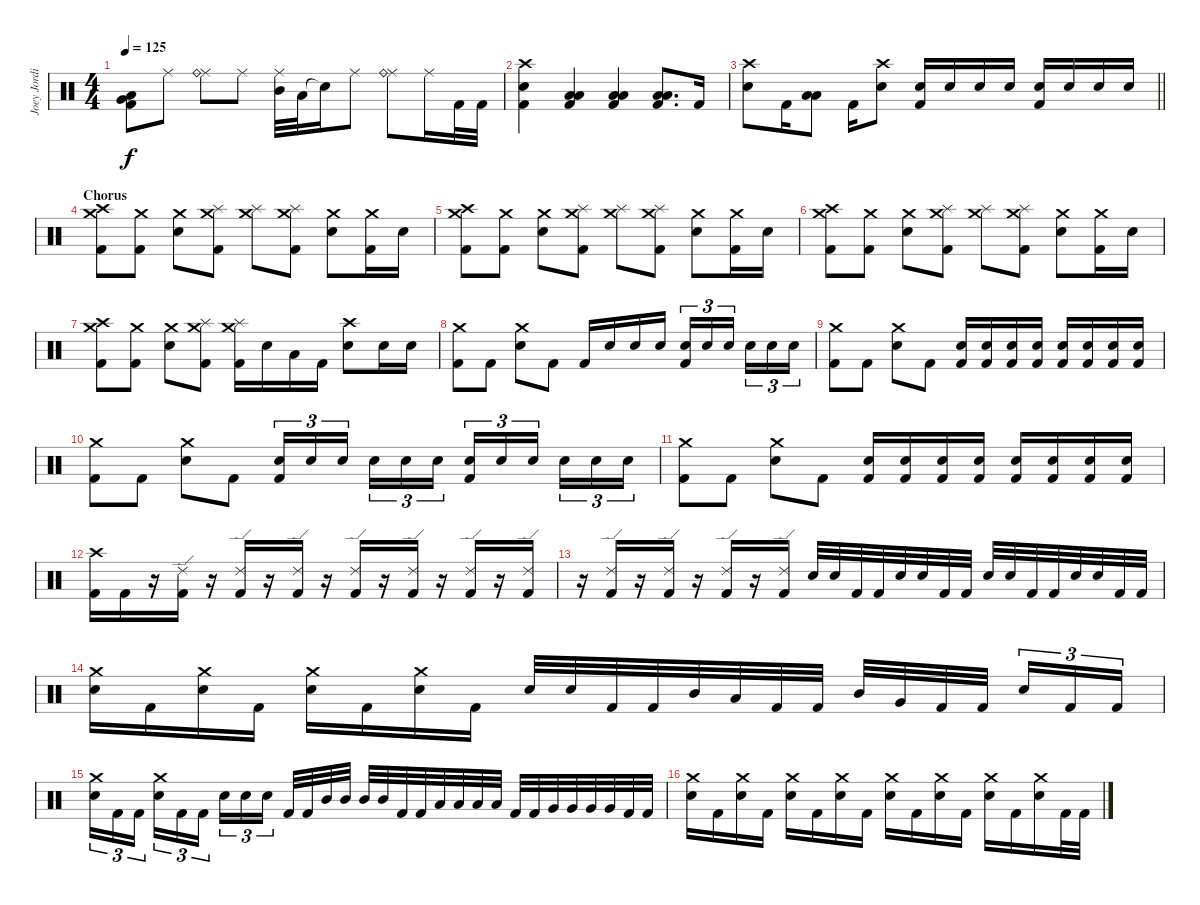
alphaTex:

\track ("Joey Jordison" "Joey Jordi") {instrument percussion}
\staff {score}
\articulation defaults
\ts (4 4)
\tempo 125
\clef neutral
\ks c
("Very Low Tom (hit)" "Low Floor Tom (hit)" "Kick (hit) 2").8{dy f} "Ride (middle)".8 ("Ride (middle)" "Ride (bell)").8 "Ride (middle)".8 ("Ride (middle)" "Mid Tom (hit)").32 "Low Tom (hit)".32 "Snare (hit)"{t}.16 "Ride (middle)".8 ("Ride (middle)" "Ride (bell)").8 "Ride (middle)".16 "Kick (hit) 2".32 "Kick (hit) 2".32 |
("Crash high (hit)" "Snare (hit) 2" "Kick (hit) 2").4 ("Low Tom (hit)" "Low Floor Tom (hit)" "Kick (hit) 2").4 ("Low Tom (hit)" "Low Floor Tom (hit)" "Kick (hit) 2").4 ("Low Tom (hit)" "Low Floor Tom (hit)" "Kick (hit) 2").8{d} "Kick (hit) 2".16 |
\barLineRight lightlight
("Crash high (hit)" "Snare (hit) 2").8 "Kick (hit) 2".16 ("Low Tom (hit)" "Low Floor Tom (hit)").8 "Kick (hit) 2".16 ("Crash high (hit)" "Snare (hit) 2").8 ("Snare (hit) 2" "Kick (hit) 2").16 "Snare (hit) 2".16 "Snare (hit) 2".16 "Snare (hit) 2".16 ("Snare (hit) 2" "Kick (hit) 2").16 "Snare (hit) 2".16 "Snare (hit) 2".16 "Snare (hit) 2".16 |
\section ("" "Chorus")
("Crash medium (hit)" "Crash high (hit)" "Kick (hit) 2").8 ("Crash medium (hit)" "Kick (hit) 2").8 ("Crash medium (hit)" "Snare (hit) 2").8 ("Crash medium (hit)" "Splash (hit)" "Kick (hit) 2").8 ("Crash medium (hit)" "Splash (hit)").8 ("Crash medium (hit)" "Splash (hit)" "Kick (hit) 2").8 ("Crash medium (hit)" "Snare (hit) 2").8 ("Crash medium (hit)" "Kick (hit) 2").16 "Snare (hit) 2".16 |
("Crash medium (hit)" "Crash high (hit)" "Kick (hit) 2").8 ("Crash medium (hit)" "Kick (hit) 2").8 ("Crash medium (hit)" "Snare (hit) 2").8 ("Crash medium (hit)" "Splash (hit)" "Kick (hit) 2").8 ("Crash medium (hit)" "Splash (hit)").8 ("Crash medium (hit)" "Splash (hit)" "Kick (hit) 2").8 ("Crash medium (hit)" "Snare (hit) 2").8 ("Crash medium (hit)" "Kick (hit) 2").16 "Snare (hit) 2".16 |
("Crash medium (hit)" "Crash high (hit)" "Kick (hit) 2").8 ("Crash medium (hit)" "Kick (hit) 2").8 ("Crash medium (hit)" "Snare (hit) 2").8 ("Crash medium (hit)" "Splash (hit)" "Kick (hit) 2").8 ("Crash medium (hit)" "Splash (hit)").8 ("Crash medium (hit)" "Splash (hit)" "Kick (hit) 2").8 ("Crash medium (hit)" "Snare (hit) 2").8 ("Crash medium (hit)" "Kick (hit) 2").16 "Snare (hit) 2".16 |
("Crash medium (hit)" "Crash high (hit)" "Kick (hit) 2").8 ("Crash medium (hit)" "Kick (hit) 2").8 ("Crash medium (hit)" "Snare (hit) 2").8 ("Crash medium (hit)" "Splash (hit)" "Kick (hit) 2").8 ("Crash medium (hit)" "Splash (hit)" "Kick (hit) 2").16 "Snare (hit) 2".16 "Low Tom (hit)".16 "Kick (hit) 2".16 ("Crash high (hit)" "Snare (hit) 2").8 "Snare (hit) 2".16 "Snare (hit) 2".16 |
("Crash medium (hit)" "Kick (hit) 2").8 "Kick (hit) 2".8 ("Crash medium (hit)" "Snare (hit) 2").8 "Kick (hit) 2".8 "Kick (hit) 2".16 "Snare (hit) 2".16 "Snare (hit) 2".16 "Snare (hit) 2".16 ("Snare (hit) 2" "Kick (hit) 2").16{tu (3 2)} "Snare (hit) 2".16{tu (3 2)} "Snare (hit) 2".16{tu (3 2) beam splitsecondary} "Snare (hit) 2".16{tu (3 2)} "Snare (hit) 2".16{tu (3 2)} "Snare (hit) 2".16{tu (3 2)} |
("Crash medium (hit)" "Kick (hit) 2").8 "Kick (hit) 2".8 ("Crash medium (hit)" "Snare (hit) 2").8 "Kick (hit) 2".8 ("Snare (hit) 2" "Kick (hit) 2").16 ("Snare (hit) 2" "Kick (hit) 2").16 ("Snare (hit) 2" "Kick (hit) 2").16 ("Snare (hit) 2" "Kick (hit) 2").16 ("Snare (hit) 2" "Kick (hit) 2").16 ("Snare (hit) 2" "Kick (hit) 2").16 ("Snare (hit) 2" "Kick (hit) 2").16 ("Snare (hit) 2" "Kick (hit) 2").16 |
("Crash medium (hit)" "Kick (hit) 2").8 "Kick (hit) 2".8 ("Crash medium (hit)" "Snare (hit) 2").8 "Kick (hit) 2".8 ("Snare (hit) 2" "Kick (hit) 2").16{tu (3 2)} "Snare (hit) 2".16{tu (3 2)} "Snare (hit) 2".16{tu (3 2) beam splitsecondary} "Snare (hit) 2".16{tu (3 2)} "Snare (hit) 2".16{tu (3 2)} "Snare (hit) 2".16{tu (3 2)} ("Snare (hit) 2" "Kick (hit) 2").16{tu (3 2)} "Snare (hit) 2".16{tu (3 2)} "Snare (hit) 2".16{tu (3 2) beam splitsecondary} "Snare (hit) 2".16{tu (3 2)} "Snare (hit) 2".16{tu (3 2)} "Snare (hit) 2".16{tu (3 2)} |
("Crash medium (hit)" "Kick (hit) 2").8 "Kick (hit) 2".8 ("Crash medium (hit)" "Snare (hit) 2").8 "Kick (hit) 2".8 ("Snare (hit) 2" "Kick (hit) 2").16 ("Snare (hit) 2" "Kick (hit) 2").16 ("Snare (hit) 2" "Kick (hit) 2").16 ("Snare (hit) 2" "Kick (hit) 2").16 ("Snare (hit) 2" "Kick (hit) 2").16 ("Snare (hit) 2" "Kick (hit) 2").16 ("Snare (hit) 2" "Kick (hit) 2").16 ("Snare (hit) 2" "Kick (hit) 2").16 |
("Crash high (hit)" "Kick (hit) 2").16 "Kick (hit) 2".16 r.16 ("Ride (edge) 2" "Kick (hit) 2").16 r.16 ("Ride (edge) 2" "Kick (hit) 2").16 r.16 ("Ride (edge) 2" "Kick (hit) 2").16 r.16 ("Ride (edge) 2" "Kick (hit) 2").16 r.16 ("Ride (edge) 2" "Kick (hit) 2").16 r.16 ("Ride (edge) 2" "Kick (hit) 2").16 r.16 ("Ride (edge) 2" "Kick (hit) 2").16 |
r.16 ("Ride (edge) 2" "Kick (hit) 2").16 r.16 ("Ride (edge) 2" "Kick (hit) 2").16 r.16 ("Ride (edge) 2" "Kick (hit) 2").16 r.16 ("Ride (edge) 2" "Kick (hit) 2").16 "Snare (hit) 2".32 "Snare (hit) 2".32 "Kick (hit) 2".32 "Kick (hit) 2".32 "Snare (hit) 2".32 "Snare (hit) 2".32 "Kick (hit) 2".32 "Kick (hit) 2".32 "Snare (hit) 2".32 "Snare (hit) 2".32 "Kick (hit) 2".32 "Kick (hit) 2".32 "Snare (hit) 2".32 "Snare (hit) 2".32 "Kick (hit) 2".32 "Kick (hit) 2".32 |
("Crash medium (hit)" "Snare (hit) 2").16 "Kick (hit) 2".16 ("Crash medium (hit)" "Snare (hit) 2").16 "Kick (hit) 2".16 ("Crash medium (hit)" "Snare (hit) 2").16 "Kick (hit) 2".16 ("Crash medium (hit)" "Snare (hit) 2").16 "Kick (hit) 2".16 "Snare (hit) 2".32 "Snare (hit) 2".32 "Kick (hit) 2".32 "Kick (hit) 2".32 "Mid Tom (hit)".32 "Low Tom (hit)".32 "Kick (hit) 2".32 "Kick (hit) 2".32 "Mid Tom (hit)".32 "Very Low Tom (hit)".32 "Kick (hit) 2".32 "Kick (hit) 2".32{beam splitsecondary} "Snare (hit) 2".16{tu (3 2)} "Kick (hit) 2".16{tu (3 2)} "Kick (hit) 2".16{tu (3 2)} |
("Crash medium (hit)" "Snare (hit) 2").16{tu (3 2)} "Kick (hit) 2".16{tu (3 2)} "Kick (hit) 2".16{tu (3 2) beam splitsecondary} ("Crash medium (hit)" "Snare (hit) 2").16{tu (3 2)} "Kick (hit) 2".16{tu (3 2)} "Kick (hit) 2".16{tu (3 2)} "Snare (hit) 2".16{tu (3 2)} "Snare (hit) 2".16{tu (3 2)} "Snare (hit) 2".16{tu (3 2) beam splitsecondary} "Kick (hit) 2".32 "Kick (hit) 2".32 "Mid Tom (hit)".32 "Mid Tom (hit)".32 "Mid Tom (hit)".32 "Mid Tom (hit)".32 "Kick (hit) 2".32 "Kick (hit) 2".32 "Low Tom (hit)".32 "Low Tom (hit)".32 "Low Tom (hit)".32 "Low Tom (hit)".32 "Kick (hit) 2".32 "Kick (hit) 2".32 "Very Low Tom (hit)".32 "Very Low Tom (hit)".32 "Very Low Tom (hit)".32 "Very Low Tom (hit)".32 "Kick (hit) 2".32 "Kick (hit) 2".32 |
("Crash medium (hit)" "Snare (hit) 2").16 "Kick (hit) 2".16 ("Crash medium (hit)" "Snare (hit) 2").16 "Kick (hit) 2".16 ("Crash medium (hit)" "Snare (hit) 2").16 "Kick (hit) 2".16 ("Crash medium (hit)" "Snare (hit) 2").16 "Kick (hit) 2".16 ("Crash medium (hit)" "Snare (hit) 2").16 "Kick (hit) 2".16 ("Crash medium (hit)" "Snare (hit) 2").16 "Kick (hit) 2".16 ("Crash medium (hit)" "Snare (hit) 2").16 "Kick (hit) 2".16 ("Crash medium (hit)" "Snare (hit) 2").16 "Kick (hit) 2".32 "Kick (hit) 2".32
